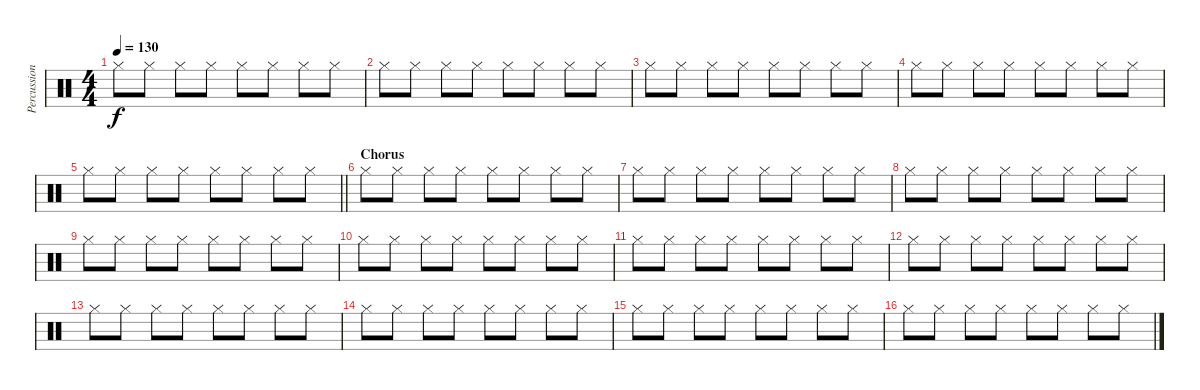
\track ("Percussion" "Percussion") {instrument percussion}
\staff {score}
\articulation defaults
\ts (4 4)
\tempo 130
\clef neutral
\ks c "Hi-Hat (closed)".8{dy f} "Hi-Hat (closed)".8 "Hi-Hat (closed)".8 "Hi-Hat (closed)".8 "Hi-Hat (closed)".8 "Hi-Hat (closed)".8 "Hi-Hat (closed)".8 "Hi-Hat (closed)".8
|
"Hi-Hat (closed)".8 "Hi-Hat (closed)".8 "Hi-Hat (closed)".8 "Hi-Hat (closed)".8 "Hi-Hat (closed)".8 "Hi-Hat (closed)".8 "Hi-Hat (closed)".8 "Hi-Hat (closed)".8 |
"Hi-Hat (closed)".8 "Hi-Hat (closed)".8 "Hi-Hat (closed)".8 "Hi-Hat (closed)".8 "Hi-Hat (closed)".8 "Hi-Hat (closed)".8 "Hi-Hat (closed)".8 "Hi-Hat (closed)".8 |
"Hi-Hat (closed)".8 "Hi-Hat (closed)".8 "Hi-Hat (closed)".8 "Hi-Hat (closed)".8 "Hi-Hat (closed)".8 "Hi-Hat (closed)".8 "Hi-Hat (closed)".8 "Hi-Hat (closed)".8 |
\barLineRight lightlight "Hi-Hat (closed)".8 "Hi-Hat (closed)".8 "Hi-Hat (closed)".8 "Hi-Hat (closed)".8 "Hi-Hat (closed)".8 "Hi-Hat (closed)".8 "Hi-Hat (closed)".8 "Hi-Hat (closed)".8
|
\section ("" "Chorus")
"Hi-Hat (closed)".8 "Hi-Hat (closed)".8 "Hi-Hat (closed)".8 "Hi-Hat (closed)".8 "Hi-Hat (closed)".8 "Hi-Hat (closed)".8 "Hi-Hat (closed)".8 "Hi-Hat (closed)".8 |
"Hi-Hat (closed)".8 "Hi-Hat (closed)".8 "Hi-Hat (closed)".8 "Hi-Hat (closed)".8 "Hi-Hat (closed)".8 "Hi-Hat (closed)".8 "Hi-Hat (closed)".8 "Hi-Hat (closed)".8 |
"Hi-Hat (closed)".8 "Hi-Hat (closed)".8 "Hi-Hat (closed)".8 "Hi-Hat (closed)".8 "Hi-Hat (closed)".8 "Hi-Hat (closed)".8 "Hi-Hat (closed)".8 "Hi-Hat (closed)".8 |
"Hi-Hat (closed)".8 "Hi-Hat (closed)".8 "Hi-Hat (closed)".8 "Hi-Hat (closed)".8 "Hi-Hat (closed)".8 "Hi-Hat (closed)".8 "Hi-Hat (closed)".8 "Hi-Hat (closed)".8 |
"Hi-Hat (closed)".8 "Hi-Hat (closed)".8 "Hi-Hat (closed)".8 "Hi-Hat (closed)".8 "Hi-Hat (closed)".8 "Hi-Hat (closed)".8 "Hi-Hat (closed)".8 "Hi-Hat (closed)".8 |
"Hi-Hat (closed)".8 "Hi-Hat (closed)".8 "Hi-Hat (closed)".8 "Hi-Hat (closed)".8 "Hi-Hat (closed)".8 "Hi-Hat (closed)".8 "Hi-Hat (closed)".8 "Hi-Hat (closed)".8 |
"Hi-Hat (closed)".8 "Hi-Hat (closed)".8 "Hi-Hat (closed)".8 "Hi-Hat (closed)".8 "Hi-Hat (closed)".8 "Hi-Hat (closed)".8 "Hi-Hat (closed)".8 "Hi-Hat (closed)".8 |
"Hi-Hat (closed)".8 "Hi-Hat (closed)".8 "Hi-Hat (closed)".8 "Hi-Hat (closed)".8 "Hi-Hat (closed)".8 "Hi-Hat (closed)".8 "Hi-Hat (closed)".8 "Hi-Hat (closed)".8 |
"Hi-Hat (closed)".8 "Hi-Hat (closed)".8 "Hi-Hat (closed)".8 "Hi-Hat (closed)".8 "Hi-Hat (closed)".8 "Hi-Hat (closed)".8 "Hi-Hat (closed)".8 "Hi-Hat (closed)".8 |
"Hi-Hat (closed)".8 "Hi-Hat (closed)".8 "Hi-Hat (closed)".8 "Hi-Hat (closed)".8 "Hi-Hat (closed)".8 "Hi-Hat (closed)".8 "Hi-Hat (closed)".8 "Hi-Hat (closed)".8 |
"Hi-Hat (closed)".8 "Hi-Hat (closed)".8 "Hi-Hat (closed)".8 "Hi-Hat (closed)".8 "Hi-Hat (closed)".8 "Hi-Hat (closed)".8 "Hi-Hat (closed)".8 "Hi-Hat (closed)".8
